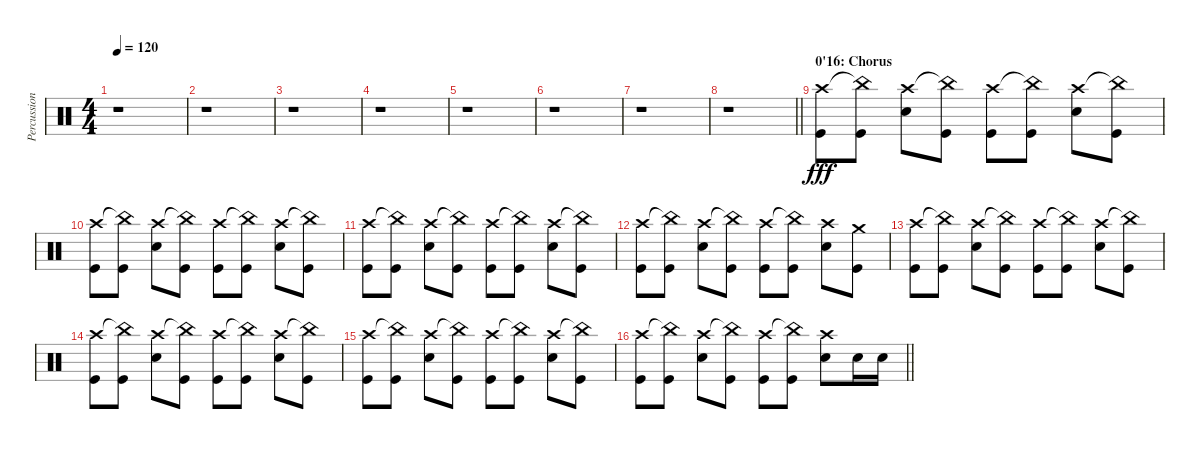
\track ("Percussions" "Percussion") {instrument percussion}
\staff {score}
\articulation defaults
\ts (4 4)
\tempo 120
\clef neutral
\ks c
r.1{dy fff} |
r.1 |
r.1 |
r.1 |
r.1 |
r.1 |
r.1 |
\barLineRight lightlight
r.1 |
\section ("" "0'16: Chorus")
("Crash high (hit)" "Kick (hit)").8 ("China (hit)"{t} "Kick (hit)").8 ("Crash high (hit)" "Snare (hit) 2").8 ("China (hit)"{t} "Kick (hit)").8 ("Crash high (hit)" "Kick (hit)").8 ("China (hit)"{t} "Kick (hit)").8 ("Crash high (hit)" "Snare (hit) 2").8 ("China (hit)"{t} "Kick (hit)").8 |
("Crash high (hit)" "Kick (hit)").8 ("China (hit)"{t} "Kick (hit)").8 ("Crash high (hit)" "Snare (hit) 2").8 ("China (hit)"{t} "Kick (hit)").8 ("Crash high (hit)" "Kick (hit)").8 ("China (hit)"{t} "Kick (hit)").8 ("Crash high (hit)" "Snare (hit) 2").8 ("China (hit)"{t} "Kick (hit)").8 |
("Crash high (hit)" "Kick (hit)").8 ("China (hit)"{t} "Kick (hit)").8 ("Crash high (hit)" "Snare (hit) 2").8 ("China (hit)"{t} "Kick (hit)").8 ("Crash high (hit)" "Kick (hit)").8 ("China (hit)"{t} "Kick (hit)").8 ("Crash high (hit)" "Snare (hit) 2").8 ("China (hit)"{t} "Kick (hit)").8 |
("Crash high (hit)" "Kick (hit)").8 ("China (hit)"{t} "Kick (hit)").8 ("Crash high (hit)" "Snare (hit) 2").8 ("China (hit)"{t} "Kick (hit)").8 ("Crash high (hit)" "Kick (hit)").8 ("China (hit)"{t} "Kick (hit)").8 ("Crash high (hit)" "Snare (hit) 2").8 ("Crash medium (hit)" "Kick (hit)").8 |
("Crash high (hit)" "Kick (hit)").8 ("China (hit)"{t} "Kick (hit)").8 ("Crash high (hit)" "Snare (hit) 2").8 ("China (hit)"{t} "Kick (hit)").8 ("Crash high (hit)" "Kick (hit)").8 ("China (hit)"{t} "Kick (hit)").8 ("Crash high (hit)" "Snare (hit) 2").8 ("China (hit)"{t} "Kick (hit)").8 |
("Crash high (hit)" "Kick (hit)").8 ("China (hit)"{t} "Kick (hit)").8 ("Crash high (hit)" "Snare (hit) 2").8 ("China (hit)"{t} "Kick (hit)").8 ("Crash high (hit)" "Kick (hit)").8 ("China (hit)"{t} "Kick (hit)").8 ("Crash high (hit)" "Snare (hit) 2").8 ("China (hit)"{t} "Kick (hit)").8 |
("Crash high (hit)" "Kick (hit)").8 ("China (hit)"{t} "Kick (hit)").8 ("Crash high (hit)" "Snare (hit) 2").8 ("China (hit)"{t} "Kick (hit)").8 ("Crash high (hit)" "Kick (hit)").8 ("China (hit)"{t} "Kick (hit)").8 ("Crash high (hit)" "Snare (hit) 2").8 ("China (hit)"{t} "Kick (hit)").8 |
\barLineRight lightlight
("Crash high (hit)" "Kick (hit)").8 ("China (hit)"{t} "Kick (hit)").8 ("Crash high (hit)" "Snare (hit) 2").8 ("China (hit)"{t} "Kick (hit)").8 ("Crash high (hit)" "Kick (hit)").8 ("China (hit)"{t} "Kick (hit)").8 ("Crash high (hit)" "Snare (hit) 2").8 "Snare (hit) 2".16 "Snare (hit) 2".16
